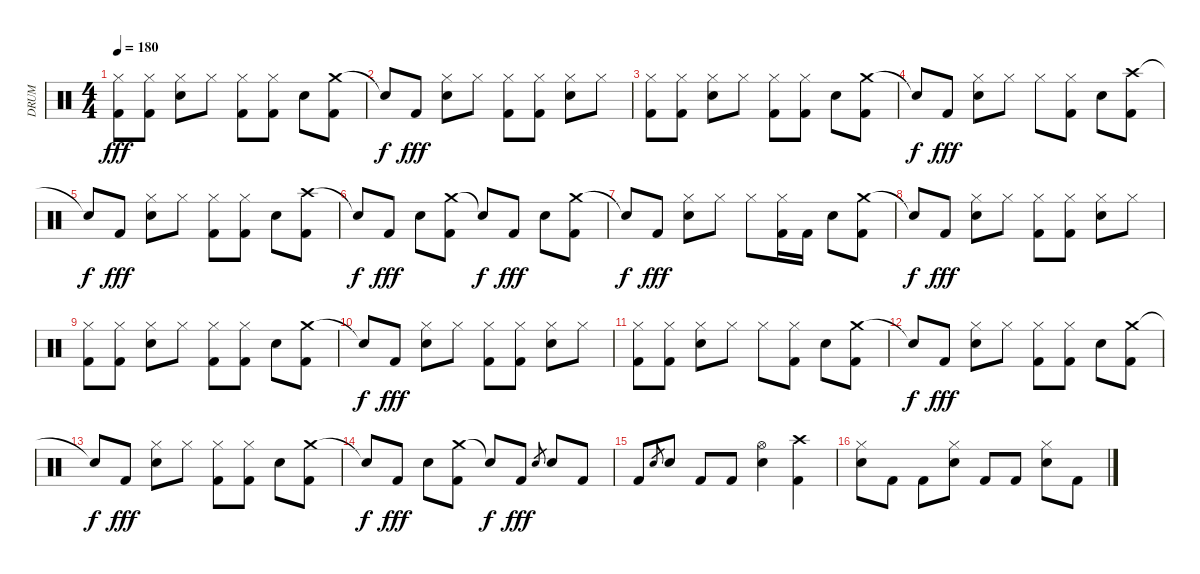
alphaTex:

\track ("DRUM" "DRUM") {instrument percussion}
\staff {score}
\articulation defaults
\ts (4 4)
\tempo 180
\clef neutral
\ks c
("Hi-Hat (closed)" "Kick (hit) 2").8{dy fff} ("Hi-Hat (closed)" "Kick (hit) 2").8 ("Hi-Hat (closed)" "Snare (hit) 2").8 "Hi-Hat (closed)".8 ("Hi-Hat (closed)" "Kick (hit) 2").8 ("Hi-Hat (closed)" "Kick (hit) 2").8 "Snare (hit) 2".8 ("Crash medium (hit)" "Kick (hit) 2").8 |
"Snare (hit)"{t}.8{dy f} "Kick (hit) 2".8{dy fff} ("Hi-Hat (closed)" "Snare (hit) 2").8 "Hi-Hat (closed)".8 ("Hi-Hat (closed)" "Kick (hit) 2").8 ("Hi-Hat (closed)" "Kick (hit) 2").8 ("Hi-Hat (closed)" "Snare (hit) 2").8 "Hi-Hat (closed)".8 |
("Hi-Hat (closed)" "Kick (hit) 2").8 ("Hi-Hat (closed)" "Kick (hit) 2").8 ("Hi-Hat (closed)" "Snare (hit) 2").8 "Hi-Hat (closed)".8 ("Hi-Hat (closed)" "Kick (hit) 2").8 ("Hi-Hat (closed)" "Kick (hit) 2").8 "Snare (hit) 2".8 ("Crash medium (hit)" "Kick (hit) 2").8 |
"Snare (hit)"{t}.8{dy f} "Kick (hit) 2".8{dy fff} ("Hi-Hat (closed)" "Snare (hit) 2").8 "Hi-Hat (closed)".8 "Hi-Hat (closed)".8 ("Hi-Hat (closed)" "Kick (hit) 2").8 "Snare (hit) 2".8 ("Crash high (hit)" "Kick (hit) 2").8 |
"Snare (hit)"{t}.8{dy f} "Kick (hit) 2".8{dy fff} ("Hi-Hat (closed)" "Snare (hit) 2").8 "Hi-Hat (closed)".8 ("Hi-Hat (closed)" "Kick (hit) 2").8 ("Hi-Hat (closed)" "Kick (hit) 2").8 "Snare (hit) 2".8 ("Crash high (hit)" "Kick (hit) 2").8 |
"Snare (hit)"{t}.8{dy f} "Kick (hit) 2".8{dy fff} "Snare (hit) 2".8 ("Crash medium (hit)" "Kick (hit) 2").8 "Snare (hit)"{t}.8{dy f} "Kick (hit) 2".8{dy fff} "Snare (hit) 2".8 ("Crash medium (hit)" "Kick (hit) 2").8 |
"Snare (hit)"{t}.8{dy f} "Kick (hit) 2".8{dy fff} ("Hi-Hat (closed)" "Snare (hit) 2").8 "Hi-Hat (closed)".8 "Hi-Hat (closed)".8 ("Hi-Hat (closed)" "Kick (hit) 2").16 "Kick (hit) 2".16 "Snare (hit) 2".8 ("Crash medium (hit)" "Kick (hit) 2").8 |
"Snare (hit)"{t}.8{dy f} "Kick (hit) 2".8{dy fff} ("Hi-Hat (closed)" "Snare (hit) 2").8 "Hi-Hat (closed)".8 ("Hi-Hat (closed)" "Kick (hit) 2").8 ("Hi-Hat (closed)" "Kick (hit) 2").8 ("Hi-Hat (closed)" "Snare (hit) 2").8 "Hi-Hat (closed)".8 |
("Hi-Hat (closed)" "Kick (hit) 2").8 ("Hi-Hat (closed)" "Kick (hit) 2").8 ("Hi-Hat (closed)" "Snare (hit) 2").8 "Hi-Hat (closed)".8 ("Hi-Hat (closed)" "Kick (hit) 2").8 ("Hi-Hat (closed)" "Kick (hit) 2").8 "Snare (hit) 2".8 ("Crash medium (hit)" "Kick (hit) 2").8 |
"Snare (hit)"{t}.8{dy f} "Kick (hit) 2".8{dy fff} ("Hi-Hat (closed)" "Snare (hit) 2").8 "Hi-Hat (closed)".8 ("Hi-Hat (closed)" "Kick (hit) 2").8 ("Hi-Hat (closed)" "Kick (hit) 2").8 ("Hi-Hat (closed)" "Snare (hit) 2").8 "Hi-Hat (closed)".8 |
("Hi-Hat (closed)" "Kick (hit) 2").8 ("Hi-Hat (closed)" "Kick (hit) 2").8 ("Hi-Hat (closed)" "Snare (hit) 2").8 "Hi-Hat (closed)".8 "Hi-Hat (closed)".8 ("Hi-Hat (closed)" "Kick (hit) 2").8 "Snare (hit) 2".8 ("Crash medium (hit)" "Kick (hit) 2").8 |
"Snare (hit)"{t}.8{dy f} "Kick (hit) 2".8{dy fff} ("Hi-Hat (closed)" "Snare (hit) 2").8 "Hi-Hat (closed)".8 ("Hi-Hat (closed)" "Kick (hit) 2").8 ("Hi-Hat (closed)" "Kick (hit) 2").8 "Snare (hit) 2".8 ("Crash medium (hit)" "Kick (hit) 2").8 |
"Snare (hit)"{t}.8{dy f} "Kick (hit) 2".8{dy fff} ("Hi-Hat (closed)" "Snare (hit) 2").8 "Hi-Hat (closed)".8 ("Hi-Hat (closed)" "Kick (hit) 2").8 ("Hi-Hat (closed)" "Kick (hit) 2").8 "Snare (hit) 2".8 ("Crash medium (hit)" "Kick (hit) 2").8 |
"Snare (hit)"{t}.8{dy f} "Kick (hit) 2".8{dy fff} "Snare (hit) 2".8 ("Crash medium (hit)" "Kick (hit) 2").8 "Snare (hit)"{t}.8{dy f} "Kick (hit) 2".8{dy fff} "Snare (hit) 2".8{gr} "Snare (hit) 2".8 "Kick (hit) 2".8 |
"Kick (hit) 2".8 "Snare (hit) 2".8{gr} "Snare (hit) 2".8 "Kick (hit) 2".8 "Kick (hit) 2".8 ("Hi-Hat (open)" "Snare (hit) 2").4 ("Crash high (hit)" "Kick (hit) 2").4 |
("Hi-Hat (closed)" "Snare (hit) 2").8 "Kick (hit) 2".8 "Kick (hit) 2".8 ("Hi-Hat (closed)" "Snare (hit) 2").8 "Kick (hit) 2".8 "Kick (hit) 2".8 ("Hi-Hat (closed)" "Snare (hit) 2").8 "Kick (hit) 2".8
